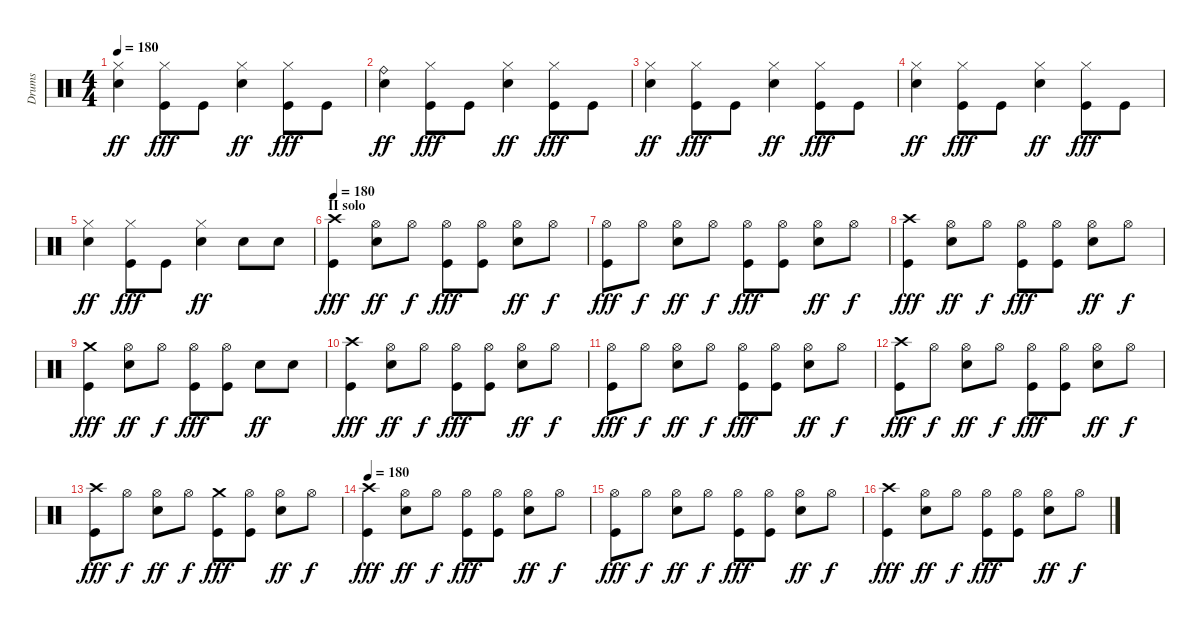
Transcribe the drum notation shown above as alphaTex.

\track ("Drums" "Drums") {instrument percussion}
\staff {score}
\articulation defaults
\ts (4 4)
\tempo 180
\clef neutral
\ks aminor
("Hi-Hat (closed)" "Snare (hit) 2").4{dy ff} ("Hi-Hat (closed)" "Kick (hit)").8{dy fff} "Kick (hit)".8 ("Hi-Hat (closed)" "Snare (hit) 2").4{dy ff} ("Hi-Hat (closed)" "Kick (hit)").8{dy fff} "Kick (hit)".8 |
("Ride (bell)" "Snare (hit) 2").4{dy ff} ("Hi-Hat (closed)" "Kick (hit)").8{dy fff} "Kick (hit)".8 ("Hi-Hat (closed)" "Snare (hit) 2").4{dy ff} ("Hi-Hat (closed)" "Kick (hit)").8{dy fff} "Kick (hit)".8 |
("Hi-Hat (closed)" "Snare (hit) 2").4{dy ff} ("Hi-Hat (closed)" "Kick (hit)").8{dy fff} "Kick (hit)".8 ("Hi-Hat (closed)" "Snare (hit) 2").4{dy ff} ("Hi-Hat (closed)" "Kick (hit)").8{dy fff} "Kick (hit)".8 |
("Hi-Hat (closed)" "Snare (hit) 2").4{dy ff} ("Hi-Hat (closed)" "Kick (hit)").8{dy fff} "Kick (hit)".8 ("Hi-Hat (closed)" "Snare (hit) 2").4{dy ff} ("Hi-Hat (closed)" "Kick (hit)").8{dy fff} "Kick (hit)".8 |
("Hi-Hat (closed)" "Snare (hit) 2").4{dy ff} ("Hi-Hat (closed)" "Kick (hit)").8{dy fff} "Kick (hit)".8 ("Hi-Hat (closed)" "Snare (hit) 2").4{dy ff} "Snare (hit) 2".8 "Snare (hit) 2".8 |
\section ("" "II solo")
\tempo 180
("Crash high (hit)" "Kick (hit)").4{dy fff} ("Hi-Hat (open)" "Snare (hit) 2").8{dy ff} "Hi-Hat (open)".8{dy f} ("Hi-Hat (open)" "Kick (hit)").8{dy fff} ("Hi-Hat (open)" "Kick (hit)").8 ("Hi-Hat (open)" "Snare (hit) 2").8{dy ff} "Hi-Hat (open)".8{dy f} |
("Hi-Hat (open)" "Kick (hit)").8{dy fff} "Hi-Hat (open)".8{dy f} ("Hi-Hat (open)" "Snare (hit) 2").8{dy ff} "Hi-Hat (open)".8{dy f} ("Hi-Hat (open)" "Kick (hit)").8{dy fff} ("Hi-Hat (open)" "Kick (hit)").8 ("Hi-Hat (open)" "Snare (hit) 2").8{dy ff} "Hi-Hat (open)".8{dy f} |
("Crash high (hit)" "Kick (hit)").4{dy fff} ("Hi-Hat (open)" "Snare (hit) 2").8{dy ff} "Hi-Hat (open)".8{dy f} ("Hi-Hat (open)" "Kick (hit)").8{dy fff} ("Hi-Hat (open)" "Kick (hit)").8 ("Hi-Hat (open)" "Snare (hit) 2").8{dy ff} "Hi-Hat (open)".8{dy f} |
("Crash medium (hit)" "Kick (hit)").4{dy fff} ("Hi-Hat (open)" "Snare (hit) 2").8{dy ff} "Hi-Hat (open)".8{dy f} ("Hi-Hat (open)" "Kick (hit)").8{dy fff} ("Hi-Hat (open)" "Kick (hit)").8 "Snare (hit) 2".8{dy ff} "Snare (hit) 2".8 |
("Crash high (hit)" "Kick (hit)").4{dy fff} ("Hi-Hat (open)" "Snare (hit) 2").8{dy ff} "Hi-Hat (open)".8{dy f} ("Hi-Hat (open)" "Kick (hit)").8{dy fff} ("Hi-Hat (open)" "Kick (hit)").8 ("Hi-Hat (open)" "Snare (hit) 2").8{dy ff} "Hi-Hat (open)".8{dy f} |
("Hi-Hat (open)" "Kick (hit)").8{dy fff} "Hi-Hat (open)".8{dy f} ("Hi-Hat (open)" "Snare (hit) 2").8{dy ff} "Hi-Hat (open)".8{dy f} ("Hi-Hat (open)" "Kick (hit)").8{dy fff} ("Hi-Hat (open)" "Kick (hit)").8 ("Hi-Hat (open)" "Snare (hit) 2").8{dy ff} "Hi-Hat (open)".8{dy f} |
("Crash high (hit)" "Kick (hit)").8{dy fff} "Hi-Hat (open)".8{dy f} ("Hi-Hat (open)" "Snare (hit) 2").8{dy ff} "Hi-Hat (open)".8{dy f} ("Hi-Hat (open)" "Kick (hit)").8{dy fff} ("Hi-Hat (open)" "Kick (hit)").8 ("Hi-Hat (open)" "Snare (hit) 2").8{dy ff} "Hi-Hat (open)".8{dy f} |
("Crash high (hit)" "Kick (hit)").8{dy fff} "Hi-Hat (open)".8{dy f} ("Hi-Hat (open)" "Snare (hit) 2").8{dy ff} "Hi-Hat (open)".8{dy f} ("Crash medium (hit)" "Kick (hit)").8{dy fff} ("Hi-Hat (open)" "Kick (hit)").8 ("Hi-Hat (open)" "Snare (hit) 2").8{dy ff} "Hi-Hat (open)".8{dy f} |
\tempo 180
("Crash high (hit)" "Kick (hit)").4{dy fff} ("Hi-Hat (open)" "Snare (hit) 2").8{dy ff} "Hi-Hat (open)".8{dy f} ("Hi-Hat (open)" "Kick (hit)").8{dy fff} ("Hi-Hat (open)" "Kick (hit)").8 ("Hi-Hat (open)" "Snare (hit) 2").8{dy ff} "Hi-Hat (open)".8{dy f} |
("Hi-Hat (open)" "Kick (hit)").8{dy fff} "Hi-Hat (open)".8{dy f} ("Hi-Hat (open)" "Snare (hit) 2").8{dy ff} "Hi-Hat (open)".8{dy f} ("Hi-Hat (open)" "Kick (hit)").8{dy fff} ("Hi-Hat (open)" "Kick (hit)").8 ("Hi-Hat (open)" "Snare (hit) 2").8{dy ff} "Hi-Hat (open)".8{dy f} |
("Crash high (hit)" "Kick (hit)").4{dy fff} ("Hi-Hat (open)" "Snare (hit) 2").8{dy ff} "Hi-Hat (open)".8{dy f} ("Hi-Hat (open)" "Kick (hit)").8{dy fff} ("Hi-Hat (open)" "Kick (hit)").8 ("Hi-Hat (open)" "Snare (hit) 2").8{dy ff} "Hi-Hat (open)".8{dy f}
